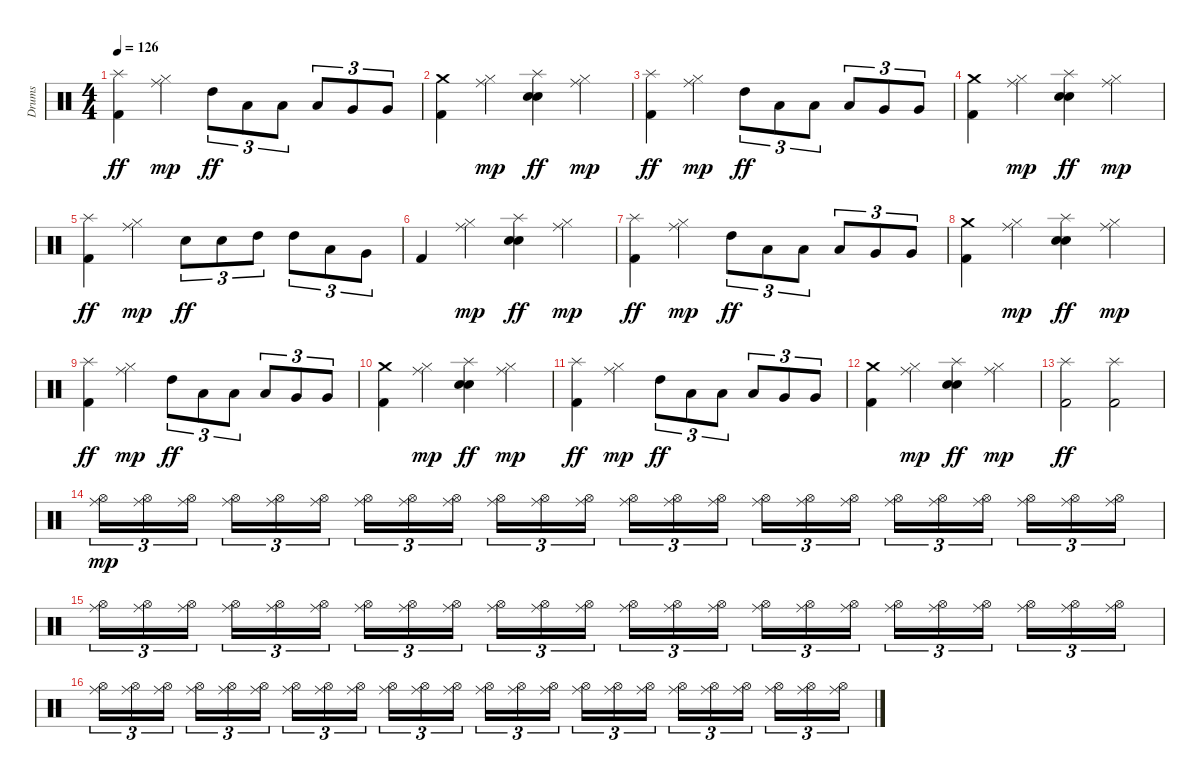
\track ("Drums" "Drums") {instrument percussion}
\staff {score}
\articulation defaults
\ts (4 4)
\tempo 126
\clef neutral
\ks c
("Splash (hit)" "Kick (hit) 2").4{dy ff} ("Ride (middle)" "Hi-Hat (closed)").4{dy mp} "High Tom (hit)".8{tu (3 2) dy ff} "Low Tom (hit)".8{tu (3 2)} "Low Tom (hit)".8{tu (3 2)} "Low Tom (hit)".8{tu (3 2)} "Very Low Tom (hit)".8{tu (3 2)} "Very Low Tom (hit)".8{tu (3 2)} |
("Crash medium (hit)" "Kick (hit) 2").4 ("Ride (middle)" "Hi-Hat (closed)").4{dy mp} ("Electric Snare (hit)" "Electric Snare (hit)" "Splash (hit)").4{dy ff} ("Ride (middle)" "Hi-Hat (closed)").4{dy mp} |
("Splash (hit)" "Kick (hit) 2").4{dy ff} ("Ride (middle)" "Hi-Hat (closed)").4{dy mp} "High Tom (hit)".8{tu (3 2) dy ff} "Low Tom (hit)".8{tu (3 2)} "Low Tom (hit)".8{tu (3 2)} "Low Tom (hit)".8{tu (3 2)} "Very Low Tom (hit)".8{tu (3 2)} "Very Low Tom (hit)".8{tu (3 2)} |
("Crash medium (hit)" "Kick (hit) 2").4 ("Ride (middle)" "Hi-Hat (closed)").4{dy mp} ("Electric Snare (hit)" "Electric Snare (hit)" "Splash (hit)").4{dy ff} ("Ride (middle)" "Hi-Hat (closed)").4{dy mp} |
("Splash (hit)" "Kick (hit) 2").4{dy ff} ("Ride (middle)" "Hi-Hat (closed)").4{dy mp} "Electric Snare (hit)".8{tu (3 2) dy ff} "Electric Snare (hit)".8{tu (3 2)} "High Tom (hit)".8{tu (3 2)} "High Tom (hit)".8{tu (3 2)} "Low Tom (hit)".8{tu (3 2)} "Very Low Tom (hit)".8{tu (3 2)} |
"Kick (hit) 2".4 ("Ride (middle)" "Hi-Hat (closed)").4{dy mp} ("Electric Snare (hit)" "Electric Snare (hit)" "Splash (hit)").4{dy ff} ("Ride (middle)" "Hi-Hat (closed)").4{dy mp} |
("Splash (hit)" "Kick (hit) 2").4{dy ff} ("Ride (middle)" "Hi-Hat (closed)").4{dy mp} "High Tom (hit)".8{tu (3 2) dy ff} "Low Tom (hit)".8{tu (3 2)} "Low Tom (hit)".8{tu (3 2)} "Low Tom (hit)".8{tu (3 2)} "Very Low Tom (hit)".8{tu (3 2)} "Very Low Tom (hit)".8{tu (3 2)} |
("Crash medium (hit)" "Kick (hit) 2").4 ("Ride (middle)" "Hi-Hat (closed)").4{dy mp} ("Electric Snare (hit)" "Electric Snare (hit)" "Splash (hit)").4{dy ff} ("Ride (middle)" "Hi-Hat (closed)").4{dy mp} |
("Splash (hit)" "Kick (hit) 2").4{dy ff} ("Ride (middle)" "Hi-Hat (closed)").4{dy mp} "High Tom (hit)".8{tu (3 2) dy ff} "Low Tom (hit)".8{tu (3 2)} "Low Tom (hit)".8{tu (3 2)} "Low Tom (hit)".8{tu (3 2)} "Very Low Tom (hit)".8{tu (3 2)} "Very Low Tom (hit)".8{tu (3 2)} |
("Crash medium (hit)" "Kick (hit) 2").4 ("Ride (middle)" "Hi-Hat (closed)").4{dy mp} ("Electric Snare (hit)" "Electric Snare (hit)" "Splash (hit)").4{dy ff} ("Ride (middle)" "Hi-Hat (closed)").4{dy mp} |
("Splash (hit)" "Kick (hit) 2").4{dy ff} ("Ride (middle)" "Hi-Hat (closed)").4{dy mp} "High Tom (hit)".8{tu (3 2) dy ff} "Low Tom (hit)".8{tu (3 2)} "Low Tom (hit)".8{tu (3 2)} "Low Tom (hit)".8{tu (3 2)} "Very Low Tom (hit)".8{tu (3 2)} "Very Low Tom (hit)".8{tu (3 2)} |
("Crash medium (hit)" "Kick (hit) 2").4 ("Ride (middle)" "Hi-Hat (closed)").4{dy mp} ("Electric Snare (hit)" "Electric Snare (hit)" "Splash (hit)").4{dy ff} ("Ride (middle)" "Hi-Hat (closed)").4{dy mp} |
("Splash (hit)" "Kick (hit) 2").2{dy ff} ("Splash (hit)" "Kick (hit) 2").2 |
("Hi-Hat (open)" "Ride (middle)").16{tu (3 2) dy mp volume 12} ("Hi-Hat (open)" "Ride (middle)").16{tu (3 2)} ("Hi-Hat (open)" "Ride (middle)").16{tu (3 2) beam splitsecondary} ("Hi-Hat (open)" "Ride (middle)").16{tu (3 2)} ("Hi-Hat (open)" "Ride (middle)").16{tu (3 2)} ("Hi-Hat (open)" "Ride (middle)").16{tu (3 2)} ("Hi-Hat (open)" "Ride (middle)").16{tu (3 2) volume 9} ("Hi-Hat (open)" "Ride (middle)").16{tu (3 2)} ("Hi-Hat (open)" "Ride (middle)").16{tu (3 2) beam splitsecondary} ("Hi-Hat (open)" "Ride (middle)").16{tu (3 2)} ("Hi-Hat (open)" "Ride (middle)").16{tu (3 2)} ("Hi-Hat (open)" "Ride (middle)").16{tu (3 2)} ("Hi-Hat (open)" "Ride (middle)").16{tu (3 2) volume 9} ("Hi-Hat (open)" "Ride (middle)").16{tu (3 2)} ("Hi-Hat (open)" "Ride (middle)").16{tu (3 2) beam splitsecondary} ("Hi-Hat (open)" "Ride (middle)").16{tu (3 2)} ("Hi-Hat (open)" "Ride (middle)").16{tu (3 2)} ("Hi-Hat (open)" "Ride (middle)").16{tu (3 2)} ("Hi-Hat (open)" "Ride (middle)").16{tu (3 2) volume 6} ("Hi-Hat (open)" "Ride (middle)").16{tu (3 2)} ("Hi-Hat (open)" "Ride (middle)").16{tu (3 2) beam splitsecondary} ("Hi-Hat (open)" "Ride (middle)").16{tu (3 2)} ("Hi-Hat (open)" "Ride (middle)").16{tu (3 2)} ("Hi-Hat (open)" "Ride (middle)").16{tu (3 2)} |
("Hi-Hat (open)" "Ride (middle)").16{tu (3 2) volume 2} ("Hi-Hat (open)" "Ride (middle)").16{tu (3 2)} ("Hi-Hat (open)" "Ride (middle)").16{tu (3 2) beam splitsecondary} ("Hi-Hat (open)" "Ride (middle)").16{tu (3 2)} ("Hi-Hat (open)" "Ride (middle)").16{tu (3 2)} ("Hi-Hat (open)" "Ride (middle)").16{tu (3 2)} ("Hi-Hat (open)" "Ride (middle)").16{tu (3 2)} ("Hi-Hat (open)" "Ride (middle)").16{tu (3 2)} ("Hi-Hat (open)" "Ride (middle)").16{tu (3 2) beam splitsecondary} ("Hi-Hat (open)" "Ride (middle)").16{tu (3 2)} ("Hi-Hat (open)" "Ride (middle)").16{tu (3 2)} ("Hi-Hat (open)" "Ride (middle)").16{tu (3 2)} ("Hi-Hat (open)" "Ride (middle)").16{tu (3 2) volume 1} ("Hi-Hat (open)" "Ride (middle)").16{tu (3 2)} ("Hi-Hat (open)" "Ride (middle)").16{tu (3 2) beam splitsecondary} ("Hi-Hat (open)" "Ride (middle)").16{tu (3 2)} ("Hi-Hat (open)" "Ride (middle)").16{tu (3 2)} ("Hi-Hat (open)" "Ride (middle)").16{tu (3 2)} ("Hi-Hat (open)" "Ride (middle)").16{tu (3 2)} ("Hi-Hat (open)" "Ride (middle)").16{tu (3 2)} ("Hi-Hat (open)" "Ride (middle)").16{tu (3 2) beam splitsecondary} ("Hi-Hat (open)" "Ride (middle)").16{tu (3 2)} ("Hi-Hat (open)" "Ride (middle)").16{tu (3 2)} ("Hi-Hat (open)" "Ride (middle)").16{tu (3 2)} |
("Hi-Hat (open)" "Ride (middle)").16{tu (3 2) volume 2} ("Hi-Hat (open)" "Ride (middle)").16{tu (3 2)} ("Hi-Hat (open)" "Ride (middle)").16{tu (3 2) beam splitsecondary} ("Hi-Hat (open)" "Ride (middle)").16{tu (3 2)} ("Hi-Hat (open)" "Ride (middle)").16{tu (3 2)} ("Hi-Hat (open)" "Ride (middle)").16{tu (3 2)} ("Hi-Hat (open)" "Ride (middle)").16{tu (3 2)} ("Hi-Hat (open)" "Ride (middle)").16{tu (3 2)} ("Hi-Hat (open)" "Ride (middle)").16{tu (3 2) beam splitsecondary} ("Hi-Hat (open)" "Ride (middle)").16{tu (3 2)} ("Hi-Hat (open)" "Ride (middle)").16{tu (3 2)} ("Hi-Hat (open)" "Ride (middle)").16{tu (3 2)} ("Hi-Hat (open)" "Ride (middle)").16{tu (3 2)} ("Hi-Hat (open)" "Ride (middle)").16{tu (3 2)} ("Hi-Hat (open)" "Ride (middle)").16{tu (3 2) beam splitsecondary} ("Hi-Hat (open)" "Ride (middle)").16{tu (3 2)} ("Hi-Hat (open)" "Ride (middle)").16{tu (3 2)} ("Hi-Hat (open)" "Ride (middle)").16{tu (3 2)} ("Hi-Hat (open)" "Ride (middle)").16{tu (3 2)} ("Hi-Hat (open)" "Ride (middle)").16{tu (3 2)} ("Hi-Hat (open)" "Ride (middle)").16{tu (3 2) beam splitsecondary} ("Hi-Hat (open)" "Ride (middle)").16{tu (3 2)} ("Hi-Hat (open)" "Ride (middle)").16{tu (3 2)} ("Hi-Hat (open)" "Ride (middle)").16{tu (3 2)}
